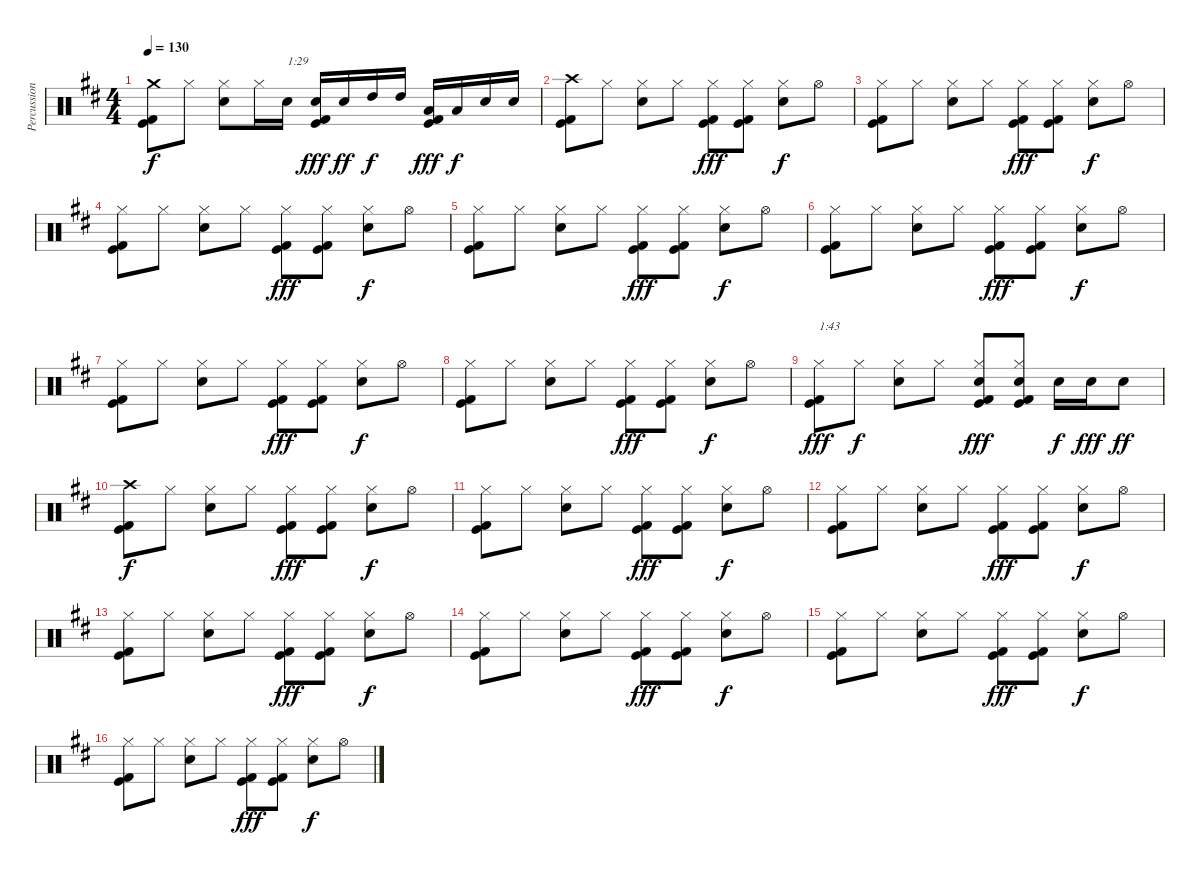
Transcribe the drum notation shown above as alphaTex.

\track ("Percussion" "Percussion") {instrument percussion}
\staff {score}
\articulation defaults
\ts (4 4)
\tempo 130
\clef neutral
\ks d
("Crash medium (hit)" "Kick (hit)" "Kick (hit) 2").8{dy f} "Hi-Hat (closed)".8 ("Hi-Hat (closed)" "Electric Snare (hit)").8 "Hi-Hat (closed)".16 "Electric Snare (hit)".16{txt "1:29"} ("Electric Snare (hit)" "Kick (hit)" "Kick (hit) 2").16{dy fff} "Electric Snare (hit)".16{dy ff} "High Tom (hit)".16{dy f} "High Tom (hit)".16 ("Low Tom (hit)" "Kick (hit)" "Kick (hit) 2").16{dy fff} "Low Tom (hit)".16{dy f} "Electric Snare (hit)".16 "Electric Snare (hit)".16 |
("Crash high (hit)" "Kick (hit)" "Kick (hit) 2").8 "Hi-Hat (closed)".8 ("Hi-Hat (closed)" "Electric Snare (hit)").8 "Hi-Hat (closed)".8 ("Hi-Hat (closed)" "Kick (hit)" "Kick (hit) 2").8{dy fff} ("Hi-Hat (closed)" "Kick (hit)" "Kick (hit) 2").8 ("Hi-Hat (closed)" "Electric Snare (hit)").8{dy f} "Hi-Hat (open)".8 |
("Hi-Hat (closed)" "Kick (hit)" "Kick (hit) 2").8 "Hi-Hat (closed)".8 ("Hi-Hat (closed)" "Electric Snare (hit)").8 "Hi-Hat (closed)".8 ("Hi-Hat (closed)" "Kick (hit)" "Kick (hit) 2").8{dy fff} ("Hi-Hat (closed)" "Kick (hit)" "Kick (hit) 2").8 ("Hi-Hat (closed)" "Electric Snare (hit)").8{dy f} "Hi-Hat (open)".8 |
("Hi-Hat (closed)" "Kick (hit)" "Kick (hit) 2").8 "Hi-Hat (closed)".8 ("Hi-Hat (closed)" "Electric Snare (hit)").8 "Hi-Hat (closed)".8 ("Hi-Hat (closed)" "Kick (hit)" "Kick (hit) 2").8{dy fff} ("Hi-Hat (closed)" "Kick (hit)" "Kick (hit) 2").8 ("Hi-Hat (closed)" "Electric Snare (hit)").8{dy f} "Hi-Hat (open)".8 |
("Hi-Hat (closed)" "Kick (hit)" "Kick (hit) 2").8 "Hi-Hat (closed)".8 ("Hi-Hat (closed)" "Electric Snare (hit)").8 "Hi-Hat (closed)".8 ("Hi-Hat (closed)" "Kick (hit)" "Kick (hit) 2").8{dy fff} ("Hi-Hat (closed)" "Kick (hit)" "Kick (hit) 2").8 ("Hi-Hat (closed)" "Electric Snare (hit)").8{dy f} "Hi-Hat (open)".8 |
("Hi-Hat (closed)" "Kick (hit)" "Kick (hit) 2").8 "Hi-Hat (closed)".8 ("Hi-Hat (closed)" "Electric Snare (hit)").8 "Hi-Hat (closed)".8 ("Hi-Hat (closed)" "Kick (hit)" "Kick (hit) 2").8{dy fff} ("Hi-Hat (closed)" "Kick (hit)" "Kick (hit) 2").8 ("Hi-Hat (closed)" "Electric Snare (hit)").8{dy f} "Hi-Hat (open)".8 |
("Hi-Hat (closed)" "Kick (hit)" "Kick (hit) 2").8 "Hi-Hat (closed)".8 ("Hi-Hat (closed)" "Electric Snare (hit)").8 "Hi-Hat (closed)".8 ("Hi-Hat (closed)" "Kick (hit)" "Kick (hit) 2").8{dy fff} ("Hi-Hat (closed)" "Kick (hit)" "Kick (hit) 2").8 ("Hi-Hat (closed)" "Electric Snare (hit)").8{dy f} "Hi-Hat (open)".8 |
("Hi-Hat (closed)" "Kick (hit)" "Kick (hit) 2").8 "Hi-Hat (closed)".8 ("Hi-Hat (closed)" "Electric Snare (hit)").8 "Hi-Hat (closed)".8 ("Hi-Hat (closed)" "Kick (hit)" "Kick (hit) 2").8{dy fff} ("Hi-Hat (closed)" "Kick (hit)" "Kick (hit) 2").8 ("Hi-Hat (closed)" "Electric Snare (hit)").8{dy f} "Hi-Hat (open)".8 |
("Hi-Hat (closed)" "Kick (hit)" "Kick (hit) 2").8{txt "1:43" dy fff} "Hi-Hat (closed)".8{dy f} ("Hi-Hat (closed)" "Electric Snare (hit)").8 "Hi-Hat (closed)".8 ("Hi-Hat (closed)" "Electric Snare (hit)" "Kick (hit)" "Kick (hit) 2").8{dy fff} ("Hi-Hat (closed)" "Electric Snare (hit)" "Kick (hit)" "Kick (hit) 2").8 "Electric Snare (hit)".16{dy f} "Electric Snare (hit)".16{dy fff} "Electric Snare (hit)".8{dy ff} |
("Crash high (hit)" "Kick (hit)" "Kick (hit) 2").8{dy f} "Hi-Hat (closed)".8 ("Hi-Hat (closed)" "Electric Snare (hit)").8 "Hi-Hat (closed)".8 ("Hi-Hat (closed)" "Kick (hit)" "Kick (hit) 2").8{dy fff} ("Hi-Hat (closed)" "Kick (hit)" "Kick (hit) 2").8 ("Hi-Hat (closed)" "Electric Snare (hit)").8{dy f} "Hi-Hat (open)".8 |
("Hi-Hat (closed)" "Kick (hit)" "Kick (hit) 2").8 "Hi-Hat (closed)".8 ("Hi-Hat (closed)" "Electric Snare (hit)").8 "Hi-Hat (closed)".8 ("Hi-Hat (closed)" "Kick (hit)" "Kick (hit) 2").8{dy fff} ("Hi-Hat (closed)" "Kick (hit)" "Kick (hit) 2").8 ("Hi-Hat (closed)" "Electric Snare (hit)").8{dy f} "Hi-Hat (open)".8 |
("Hi-Hat (closed)" "Kick (hit)" "Kick (hit) 2").8 "Hi-Hat (closed)".8 ("Hi-Hat (closed)" "Electric Snare (hit)").8 "Hi-Hat (closed)".8 ("Hi-Hat (closed)" "Kick (hit)" "Kick (hit) 2").8{dy fff} ("Hi-Hat (closed)" "Kick (hit)" "Kick (hit) 2").8 ("Hi-Hat (closed)" "Electric Snare (hit)").8{dy f} "Hi-Hat (open)".8 |
("Hi-Hat (closed)" "Kick (hit)" "Kick (hit) 2").8 "Hi-Hat (closed)".8 ("Hi-Hat (closed)" "Electric Snare (hit)").8 "Hi-Hat (closed)".8 ("Hi-Hat (closed)" "Kick (hit)" "Kick (hit) 2").8{dy fff} ("Hi-Hat (closed)" "Kick (hit)" "Kick (hit) 2").8 ("Hi-Hat (closed)" "Electric Snare (hit)").8{dy f} "Hi-Hat (open)".8 |
("Hi-Hat (closed)" "Kick (hit)" "Kick (hit) 2").8 "Hi-Hat (closed)".8 ("Hi-Hat (closed)" "Electric Snare (hit)").8 "Hi-Hat (closed)".8 ("Hi-Hat (closed)" "Kick (hit)" "Kick (hit) 2").8{dy fff} ("Hi-Hat (closed)" "Kick (hit)" "Kick (hit) 2").8 ("Hi-Hat (closed)" "Electric Snare (hit)").8{dy f} "Hi-Hat (open)".8 |
("Hi-Hat (closed)" "Kick (hit)" "Kick (hit) 2").8 "Hi-Hat (closed)".8 ("Hi-Hat (closed)" "Electric Snare (hit)").8 "Hi-Hat (closed)".8 ("Hi-Hat (closed)" "Kick (hit)" "Kick (hit) 2").8{dy fff} ("Hi-Hat (closed)" "Kick (hit)" "Kick (hit) 2").8 ("Hi-Hat (closed)" "Electric Snare (hit)").8{dy f} "Hi-Hat (open)".8 |
("Hi-Hat (closed)" "Kick (hit)" "Kick (hit) 2").8 "Hi-Hat (closed)".8 ("Hi-Hat (closed)" "Electric Snare (hit)").8 "Hi-Hat (closed)".8 ("Hi-Hat (closed)" "Kick (hit)" "Kick (hit) 2").8{dy fff} ("Hi-Hat (closed)" "Kick (hit)" "Kick (hit) 2").8 ("Hi-Hat (closed)" "Electric Snare (hit)").8{dy f} "Hi-Hat (open)".8
